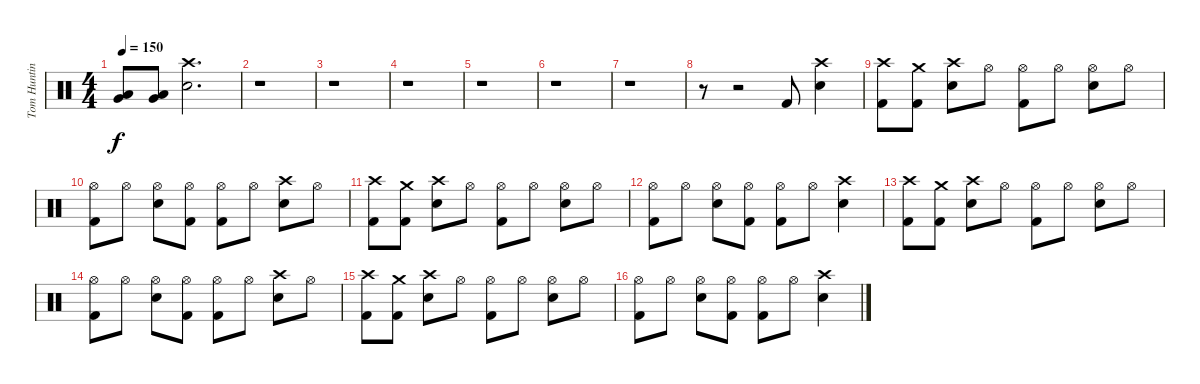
\track ("Tom Hunting" "Tom Huntin") {instrument percussion}
\staff {score}
\articulation defaults
\ts (4 4)
\tempo 150
\clef neutral
\ks c
("Low Tom (hit)" "Very Low Tom (hit)").8{dy f} ("Low Tom (hit)" "Very Low Tom (hit)").8 ("Crash high (hit)" "Snare (hit) 2").2{d} |
r.1 |
r.1 |
r.1 |
r.1 |
r.1 |
r.1 |
r.8 r.2 "Kick (hit) 2".8 ("Crash high (hit)" "Snare (hit) 2").4 |
("Crash high (hit)" "Kick (hit) 2").8 ("Crash medium (hit)" "Kick (hit) 2").8 ("Crash high (hit)" "Snare (hit) 2").8 "Hi-Hat (open)".8 ("Hi-Hat (open)" "Kick (hit) 2").8 "Hi-Hat (open)".8 ("Hi-Hat (open)" "Snare (hit) 2").8 "Hi-Hat (open)".8 |
("Hi-Hat (open)" "Kick (hit) 2").8 "Hi-Hat (open)".8 ("Hi-Hat (open)" "Snare (hit) 2").8 ("Hi-Hat (open)" "Kick (hit) 2").8 ("Hi-Hat (open)" "Kick (hit) 2").8 "Hi-Hat (open)".8 ("Crash high (hit)" "Snare (hit) 2").8 "Hi-Hat (open)".8 |
("Crash high (hit)" "Kick (hit) 2").8 ("Crash medium (hit)" "Kick (hit) 2").8 ("Crash high (hit)" "Snare (hit) 2").8 "Hi-Hat (open)".8 ("Hi-Hat (open)" "Kick (hit) 2").8 "Hi-Hat (open)".8 ("Hi-Hat (open)" "Snare (hit) 2").8 "Hi-Hat (open)".8 |
("Hi-Hat (open)" "Kick (hit) 2").8 "Hi-Hat (open)".8 ("Hi-Hat (open)" "Snare (hit) 2").8 ("Hi-Hat (open)" "Kick (hit) 2").8 ("Hi-Hat (open)" "Kick (hit) 2").8 "Hi-Hat (open)".8 ("Crash high (hit)" "Snare (hit) 2").4 |
("Crash high (hit)" "Kick (hit) 2").8 ("Crash medium (hit)" "Kick (hit) 2").8 ("Crash high (hit)" "Snare (hit) 2").8 "Hi-Hat (open)".8 ("Hi-Hat (open)" "Kick (hit) 2").8 "Hi-Hat (open)".8 ("Hi-Hat (open)" "Snare (hit) 2").8 "Hi-Hat (open)".8 |
("Hi-Hat (open)" "Kick (hit) 2").8 "Hi-Hat (open)".8 ("Hi-Hat (open)" "Snare (hit) 2").8 ("Hi-Hat (open)" "Kick (hit) 2").8 ("Hi-Hat (open)" "Kick (hit) 2").8 "Hi-Hat (open)".8 ("Crash high (hit)" "Snare (hit) 2").8 "Hi-Hat (open)".8 |
("Crash high (hit)" "Kick (hit) 2").8 ("Crash medium (hit)" "Kick (hit) 2").8 ("Crash high (hit)" "Snare (hit) 2").8 "Hi-Hat (open)".8 ("Hi-Hat (open)" "Kick (hit) 2").8 "Hi-Hat (open)".8 ("Hi-Hat (open)" "Snare (hit) 2").8 "Hi-Hat (open)".8 |
("Hi-Hat (open)" "Kick (hit) 2").8 "Hi-Hat (open)".8 ("Hi-Hat (open)" "Snare (hit) 2").8 ("Hi-Hat (open)" "Kick (hit) 2").8 ("Hi-Hat (open)" "Kick (hit) 2").8 "Hi-Hat (open)".8 ("Crash high (hit)" "Snare (hit) 2").4
